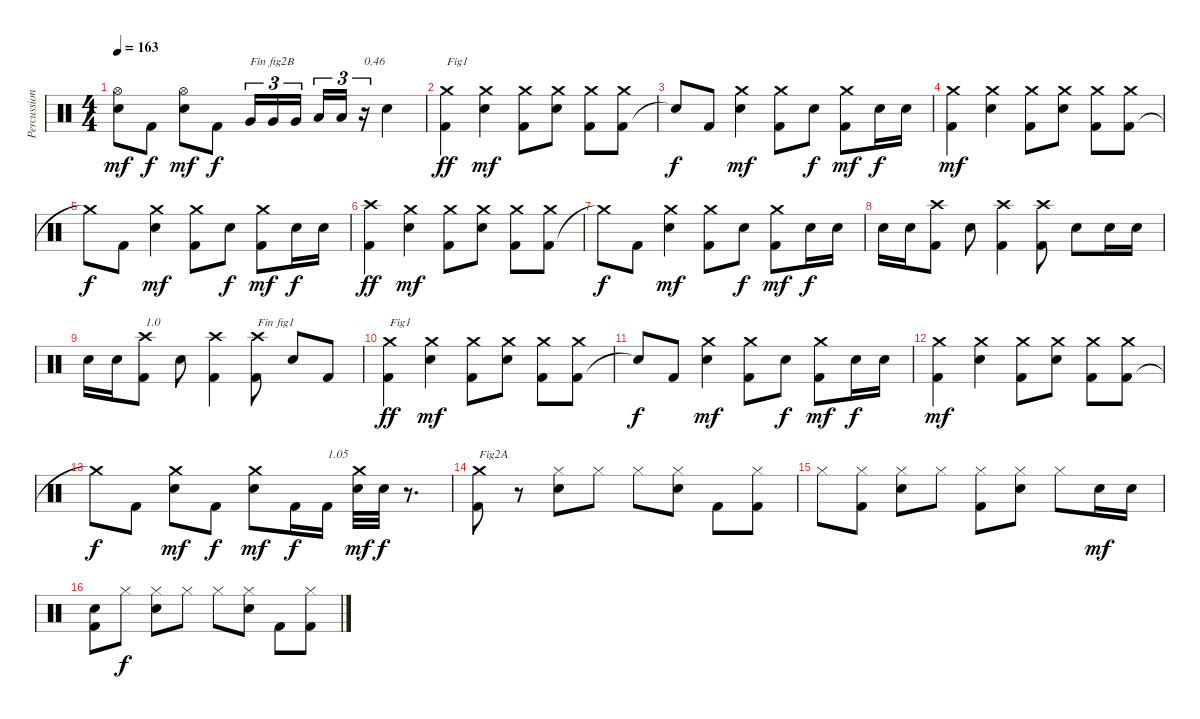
\track ("Percussions" "Percussion") {instrument percussion}
\staff {score}
\articulation defaults
\ts (4 4)
\tempo 163
\clef neutral
\ks c
("Electric Snare (hit)" "Hi-Hat (open)").8{dy mf} "Kick (hit) 2".8{dy f} ("Electric Snare (hit)" "Hi-Hat (open)").8{dy mf} "Kick (hit) 2".8{dy f} "Very Low Tom (hit)".16{tu (3 2) txt "Fin fig2B"} "Very Low Tom (hit)".16{tu (3 2)} "Very Low Tom (hit)".16{tu (3 2)} "Low Floor Tom (hit)".16{tu (3 2)} "Low Floor Tom (hit)".16{tu (3 2)} r.16{tu (3 2) txt "0.46"} "Electric Snare (hit)".4 |
("Kick (hit) 2" "Crash medium (hit)").4{txt "Fig1" dy ff} ("Electric Snare (hit)" "Crash medium (hit)").4{dy mf} ("Kick (hit) 2" "Crash medium (hit)").8 ("Electric Snare (hit)" "Crash medium (hit)").8 ("Kick (hit) 2" "Crash medium (hit)").8 ("Kick (hit) 2" "Crash medium (hit)").8 |
"Snare (hit)"{t}.8{dy f} "Kick (hit) 2".8 ("Electric Snare (hit)" "Crash medium (hit)").4{dy mf} ("Kick (hit) 2" "Crash medium (hit)").8 "Electric Snare (hit)".8{dy f} ("Kick (hit) 2" "Crash medium (hit)").8{dy mf} "Electric Snare (hit)".16{dy f} "Electric Snare (hit)".16 |
("Kick (hit) 2" "Crash medium (hit)").4{dy mf} ("Electric Snare (hit)" "Crash medium (hit)").4 ("Kick (hit) 2" "Crash medium (hit)").8 ("Electric Snare (hit)" "Crash medium (hit)").8 ("Kick (hit) 2" "Crash medium (hit)").8 ("Kick (hit) 2" "Crash medium (hit)").8 |
"Crash medium (hit)"{t}.8{dy f} "Kick (hit) 2".8 ("Electric Snare (hit)" "Crash medium (hit)").4{dy mf} ("Kick (hit) 2" "Crash medium (hit)").8 "Electric Snare (hit)".8{dy f} ("Kick (hit) 2" "Crash medium (hit)").8{dy mf} "Electric Snare (hit)".16{dy f} "Electric Snare (hit)".16 |
("Kick (hit) 2" "Crash high (hit)").4{dy ff} ("Electric Snare (hit)" "Crash medium (hit)").4{dy mf} ("Kick (hit) 2" "Crash medium (hit)").8 ("Electric Snare (hit)" "Crash medium (hit)").8 ("Kick (hit) 2" "Crash medium (hit)").8 ("Kick (hit) 2" "Crash medium (hit)").8 |
"Crash medium (hit)"{t}.8{dy f} "Kick (hit) 2".8 ("Electric Snare (hit)" "Crash medium (hit)").4{dy mf} ("Kick (hit) 2" "Crash medium (hit)").8 "Electric Snare (hit)".8{dy f} ("Kick (hit) 2" "Crash medium (hit)").8{dy mf} "Electric Snare (hit)".16{dy f} "Electric Snare (hit)".16 |
"Electric Snare (hit)".16 "Electric Snare (hit)".16 ("Kick (hit) 2" "Crash high (hit)").8 "Electric Snare (hit)".8 ("Kick (hit) 2" "Crash high (hit)").4 ("Kick (hit) 2" "Crash high (hit)").8 "Electric Snare (hit)".8 "Electric Snare (hit)".16 "Electric Snare (hit)".16 |
"Electric Snare (hit)".16 "Electric Snare (hit)".16 ("Kick (hit) 2" "Crash high (hit)").8{txt "1.0"} "Electric Snare (hit)".8 ("Kick (hit) 2" "Crash high (hit)").4 ("Kick (hit) 2" "Crash high (hit)").8{txt "Fin fig1"} "Electric Snare (hit)".8 "Kick (hit) 2".8 |
("Kick (hit) 2" "Crash medium (hit)").4{txt "Fig1" dy ff} ("Electric Snare (hit)" "Crash medium (hit)").4{dy mf} ("Kick (hit) 2" "Crash medium (hit)").8 ("Electric Snare (hit)" "Crash medium (hit)").8 ("Kick (hit) 2" "Crash medium (hit)").8 ("Kick (hit) 2" "Crash medium (hit)").8 |
"Snare (hit)"{t}.8{dy f} "Kick (hit) 2".8 ("Electric Snare (hit)" "Crash medium (hit)").4{dy mf} ("Kick (hit) 2" "Crash medium (hit)").8 "Electric Snare (hit)".8{dy f} ("Kick (hit) 2" "Crash medium (hit)").8{dy mf} "Electric Snare (hit)".16{dy f} "Electric Snare (hit)".16 |
("Kick (hit) 2" "Crash medium (hit)").4{dy mf} ("Electric Snare (hit)" "Crash medium (hit)").4 ("Kick (hit) 2" "Crash medium (hit)").8 ("Electric Snare (hit)" "Crash medium (hit)").8 ("Kick (hit) 2" "Crash medium (hit)").8 ("Kick (hit) 2" "Crash medium (hit)").8 |
"Crash medium (hit)"{t}.8{dy f} "Kick (hit) 2".8 ("Electric Snare (hit)" "Crash medium (hit)").8{dy mf} "Kick (hit) 2".8{dy f} ("Electric Snare (hit)" "Crash medium (hit)").8{dy mf} "Kick (hit) 2".16{dy f} "Kick (hit) 2".16{txt "1.05"} ("Electric Snare (hit)" "Crash medium (hit)").32{dy mf} "Electric Snare (hit)".32{dy f} r.8{d} |
("Kick (hit) 2" "Crash medium (hit)").8{txt "Fig2A"} r.8 ("Electric Snare (hit)" "Hi-Hat (closed)").8 "Hi-Hat (closed)".8 "Hi-Hat (closed)".8 ("Electric Snare (hit)" "Hi-Hat (closed)").8 "Kick (hit) 2".8 ("Kick (hit) 2" "Hi-Hat (closed)").8 |
"Hi-Hat (closed)".8 ("Kick (hit) 2" "Hi-Hat (closed)").8 ("Electric Snare (hit)" "Hi-Hat (closed)").8 "Hi-Hat (closed)".8 ("Kick (hit) 2" "Hi-Hat (closed)").8 ("Electric Snare (hit)" "Hi-Hat (closed)").8 "Hi-Hat (closed)".8 "Electric Snare (hit)".16{dy mf} "Electric Snare (hit)".16 |
("Kick (hit) 2" "Electric Snare (hit)").8 "Hi-Hat (closed)".8{dy f} ("Electric Snare (hit)" "Hi-Hat (closed)").8 "Hi-Hat (closed)".8 "Hi-Hat (closed)".8 ("Electric Snare (hit)" "Hi-Hat (closed)").8 "Kick (hit) 2".8 ("Kick (hit) 2" "Hi-Hat (closed)").8
